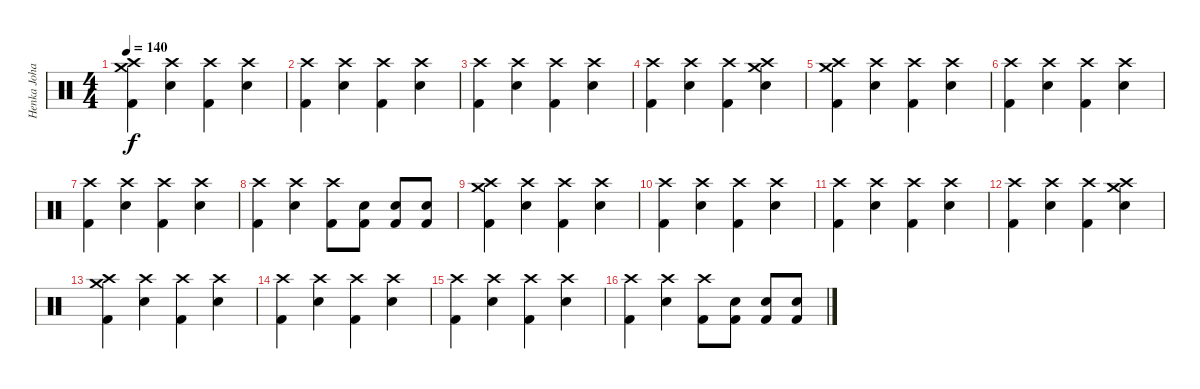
\track ("Henka Johannson " "Henka Joha") {instrument percussion}
\staff {score}
\articulation defaults
\ts (4 4)
\tempo 140
\clef neutral
\ks c
("Crash medium (hit)" "Crash high (hit)" "Kick (hit) 2").4{dy f} ("Crash high (hit)" "Electric Snare (hit)").4 ("Crash high (hit)" "Kick (hit) 2").4 ("Crash high (hit)" "Electric Snare (hit)").4 |
("Crash high (hit)" "Kick (hit) 2").4 ("Crash high (hit)" "Electric Snare (hit)").4 ("Crash high (hit)" "Kick (hit) 2").4 ("Crash high (hit)" "Electric Snare (hit)").4 |
("Crash high (hit)" "Kick (hit) 2").4 ("Crash high (hit)" "Electric Snare (hit)").4 ("Crash high (hit)" "Kick (hit) 2").4 ("Crash high (hit)" "Electric Snare (hit)").4 |
("Crash high (hit)" "Kick (hit) 2").4 ("Crash high (hit)" "Electric Snare (hit)").4 ("Crash high (hit)" "Kick (hit) 2").4 ("Crash medium (hit)" "Crash high (hit)" "Electric Snare (hit)").4 |
("Crash medium (hit)" "Crash high (hit)" "Kick (hit) 2").4 ("Crash high (hit)" "Electric Snare (hit)").4 ("Crash high (hit)" "Kick (hit) 2").4 ("Crash high (hit)" "Electric Snare (hit)").4 |
("Crash high (hit)" "Kick (hit) 2").4 ("Crash high (hit)" "Electric Snare (hit)").4 ("Crash high (hit)" "Kick (hit) 2").4 ("Crash high (hit)" "Electric Snare (hit)").4 |
("Crash high (hit)" "Kick (hit) 2").4 ("Crash high (hit)" "Electric Snare (hit)").4 ("Crash high (hit)" "Kick (hit) 2").4 ("Crash high (hit)" "Electric Snare (hit)").4 |
("Crash high (hit)" "Kick (hit) 2").4 ("Crash high (hit)" "Electric Snare (hit)").4 ("Crash high (hit)" "Kick (hit) 2").8 ("Electric Snare (hit)" "Kick (hit) 2").8 ("Electric Snare (hit)" "Kick (hit) 2").8 ("Electric Snare (hit)" "Kick (hit) 2").8 |
("Crash medium (hit)" "Crash high (hit)" "Kick (hit) 2").4 ("Crash high (hit)" "Electric Snare (hit)").4 ("Crash high (hit)" "Kick (hit) 2").4 ("Crash high (hit)" "Electric Snare (hit)").4 |
("Crash high (hit)" "Kick (hit) 2").4 ("Crash high (hit)" "Electric Snare (hit)").4 ("Crash high (hit)" "Kick (hit) 2").4 ("Crash high (hit)" "Electric Snare (hit)").4 |
("Crash high (hit)" "Kick (hit) 2").4 ("Crash high (hit)" "Electric Snare (hit)").4 ("Crash high (hit)" "Kick (hit) 2").4 ("Crash high (hit)" "Electric Snare (hit)").4 |
("Crash high (hit)" "Kick (hit) 2").4 ("Crash high (hit)" "Electric Snare (hit)").4 ("Crash high (hit)" "Kick (hit) 2").4 ("Crash medium (hit)" "Crash high (hit)" "Electric Snare (hit)").4 |
("Crash medium (hit)" "Crash high (hit)" "Kick (hit) 2").4 ("Crash high (hit)" "Electric Snare (hit)").4 ("Crash high (hit)" "Kick (hit) 2").4 ("Crash high (hit)" "Electric Snare (hit)").4 |
("Crash high (hit)" "Kick (hit) 2").4 ("Crash high (hit)" "Electric Snare (hit)").4 ("Crash high (hit)" "Kick (hit) 2").4 ("Crash high (hit)" "Electric Snare (hit)").4 |
("Crash high (hit)" "Kick (hit) 2").4 ("Crash high (hit)" "Electric Snare (hit)").4 ("Crash high (hit)" "Kick (hit) 2").4 ("Crash high (hit)" "Electric Snare (hit)").4 |
("Crash high (hit)" "Kick (hit) 2").4 ("Crash high (hit)" "Electric Snare (hit)").4 ("Crash high (hit)" "Kick (hit) 2").8 ("Electric Snare (hit)" "Kick (hit) 2").8 ("Electric Snare (hit)" "Kick (hit) 2").8 ("Electric Snare (hit)" "Kick (hit) 2").8
